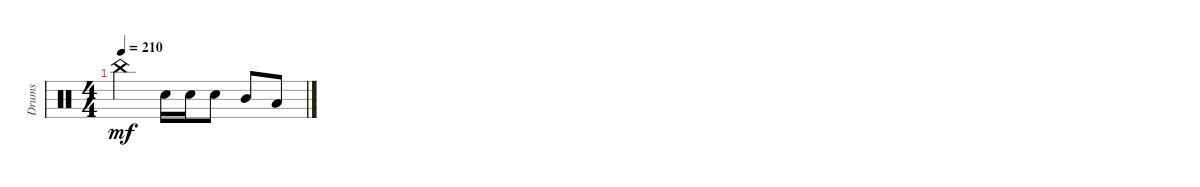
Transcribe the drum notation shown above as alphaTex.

\track ("Drums" "Drums") {instrument percussion}
\staff {score}
\articulation defaults
\ts (4 4)
\tempo 210
\clef neutral
\ks c "China (hit)".2{dy mf} "Electric Snare (hit)".16 "Electric Snare (hit)".16 "Electric Snare (hit)".8 "Mid Tom (hit)".8 "Low Tom (hit)".8
